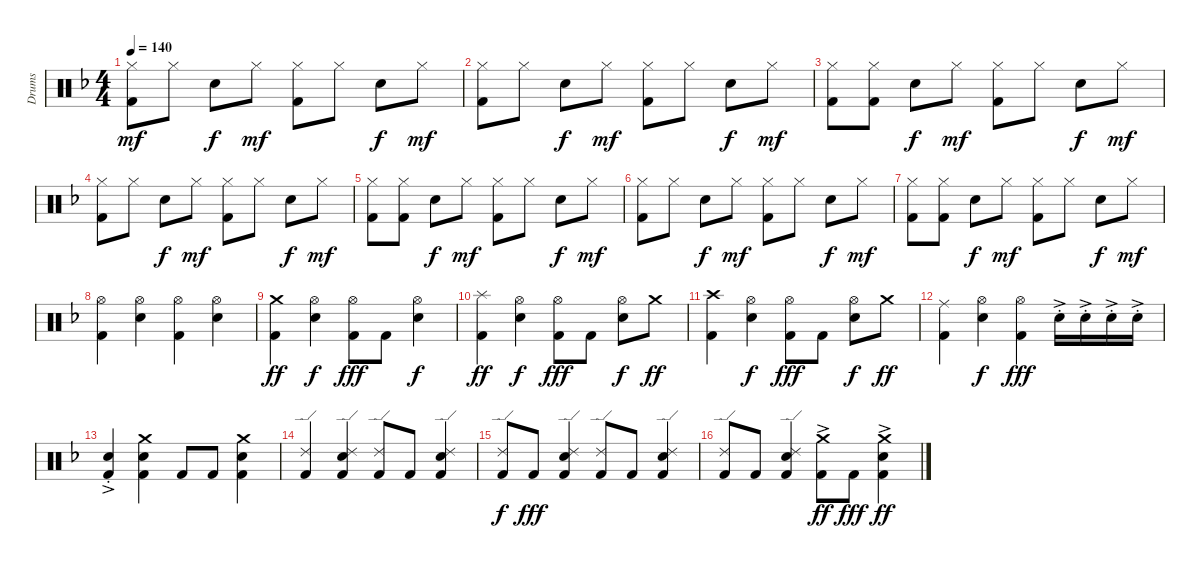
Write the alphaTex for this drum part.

\track ("Drums" "Drums") {instrument percussion}
\staff {score}
\articulation defaults
\ts (4 4)
\tempo 140
\clef neutral
\ks dminor
("Kick (hit) 2" "Hi-Hat (closed)").8{dy mf} "Hi-Hat (closed)".8 "Electric Snare (hit)".8{dy f} "Hi-Hat (closed)".8{dy mf} ("Kick (hit) 2" "Hi-Hat (closed)").8 "Hi-Hat (closed)".8 "Electric Snare (hit)".8{dy f} "Hi-Hat (closed)".8{dy mf} |
("Kick (hit) 2" "Hi-Hat (closed)").8 "Hi-Hat (closed)".8 "Electric Snare (hit)".8{dy f} "Hi-Hat (closed)".8{dy mf} ("Kick (hit) 2" "Hi-Hat (closed)").8 "Hi-Hat (closed)".8 "Electric Snare (hit)".8{dy f} "Hi-Hat (closed)".8{dy mf} |
("Kick (hit) 2" "Hi-Hat (closed)").8 ("Kick (hit) 2" "Hi-Hat (closed)").8 "Electric Snare (hit)".8{dy f} "Hi-Hat (closed)".8{dy mf} ("Kick (hit) 2" "Hi-Hat (closed)").8 "Hi-Hat (closed)".8 "Electric Snare (hit)".8{dy f} "Hi-Hat (closed)".8{dy mf} |
("Kick (hit) 2" "Hi-Hat (closed)").8 "Hi-Hat (closed)".8 "Electric Snare (hit)".8{dy f} "Hi-Hat (closed)".8{dy mf} ("Kick (hit) 2" "Hi-Hat (closed)").8 "Hi-Hat (closed)".8 "Electric Snare (hit)".8{dy f} "Hi-Hat (closed)".8{dy mf} |
("Kick (hit) 2" "Hi-Hat (closed)").8 ("Kick (hit) 2" "Hi-Hat (closed)").8 "Electric Snare (hit)".8{dy f} "Hi-Hat (closed)".8{dy mf} ("Kick (hit) 2" "Hi-Hat (closed)").8 "Hi-Hat (closed)".8 "Electric Snare (hit)".8{dy f} "Hi-Hat (closed)".8{dy mf} |
("Kick (hit) 2" "Hi-Hat (closed)").8 "Hi-Hat (closed)".8 "Electric Snare (hit)".8{dy f} "Hi-Hat (closed)".8{dy mf} ("Kick (hit) 2" "Hi-Hat (closed)").8 "Hi-Hat (closed)".8 "Electric Snare (hit)".8{dy f} "Hi-Hat (closed)".8{dy mf} |
("Kick (hit) 2" "Hi-Hat (closed)").8 ("Kick (hit) 2" "Hi-Hat (closed)").8 "Electric Snare (hit)".8{dy f} "Hi-Hat (closed)".8{dy mf} ("Kick (hit) 2" "Hi-Hat (closed)").8 "Hi-Hat (closed)".8 "Electric Snare (hit)".8{dy f} "Hi-Hat (closed)".8{dy mf} |
("Kick (hit) 2" "Hi-Hat (open)").4 ("Electric Snare (hit)" "Hi-Hat (open)").4 ("Kick (hit) 2" "Hi-Hat (open)").4 ("Electric Snare (hit)" "Hi-Hat (open)").4 |
("Kick (hit) 2" "Crash medium (hit)").4{dy ff} ("Hi-Hat (open)" "Electric Snare (hit)").4{dy f} ("Kick (hit) 2" "Hi-Hat (open)").8{dy fff} "Kick (hit) 2".8 ("Hi-Hat (open)" "Electric Snare (hit)").4{dy f} |
("Kick (hit) 2" "Splash (hit)").4{dy ff} ("Hi-Hat (open)" "Electric Snare (hit)").4{dy f} ("Kick (hit) 2" "Hi-Hat (open)").8{dy fff} "Kick (hit) 2".8 ("Hi-Hat (open)" "Electric Snare (hit)").8{dy f} "Crash medium (hit)".8{dy ff} |
("Kick (hit) 2" "Crash high (hit)").4 ("Hi-Hat (open)" "Electric Snare (hit)").4{dy f} ("Kick (hit) 2" "Hi-Hat (open)").8{dy fff} "Kick (hit) 2".8 ("Hi-Hat (open)" "Electric Snare (hit)").8{dy f} "Crash medium (hit)".8{dy ff} |
("Kick (hit) 2" "Ride (middle)").4 ("Hi-Hat (open)" "Electric Snare (hit)").4{dy f} ("Kick (hit) 2" "Hi-Hat (open)").4{dy fff} "Electric Snare (hit)"{ac st}.16 "Electric Snare (hit)"{ac st}.16 "Electric Snare (hit)"{ac st}.16 "Electric Snare (hit)"{ac st}.16 |
("Kick (hit) 2" "Electric Snare (hit)"{ac st}).4 ("Kick (hit) 2" "Crash medium (hit)" "Electric Snare (hit)").4 "Kick (hit) 2".8 "Kick (hit) 2".8 ("Kick (hit) 2" "Crash medium (hit)" "Electric Snare (hit)").4 |
("Kick (hit) 2" "Ride (edge) 2").4 ("Kick (hit) 2" "Electric Snare (hit)" "Ride (edge) 2").4 ("Kick (hit) 2" "Ride (edge) 2").8 "Kick (hit) 2".8 ("Kick (hit) 2" "Electric Snare (hit)" "Ride (edge) 2").4 |
("Kick (hit) 2" "Ride (edge) 2").8{dy f} "Kick (hit) 2".8{dy fff} ("Kick (hit) 2" "Electric Snare (hit)" "Ride (edge) 2").4 ("Kick (hit) 2" "Ride (edge) 2").8 "Kick (hit) 2".8 ("Kick (hit) 2" "Electric Snare (hit)" "Ride (edge) 2").4 |
("Kick (hit) 2" "Ride (edge) 2").8 "Kick (hit) 2".8 ("Kick (hit) 2" "Electric Snare (hit)" "Ride (edge) 2").4 ("Kick (hit) 2" "Crash medium (hit)"{ac}).8{dy ff} "Kick (hit) 2".8{dy fff} ("Kick (hit) 2" "Electric Snare (hit)" "Crash medium (hit)"{ac}).4{dy ff}
